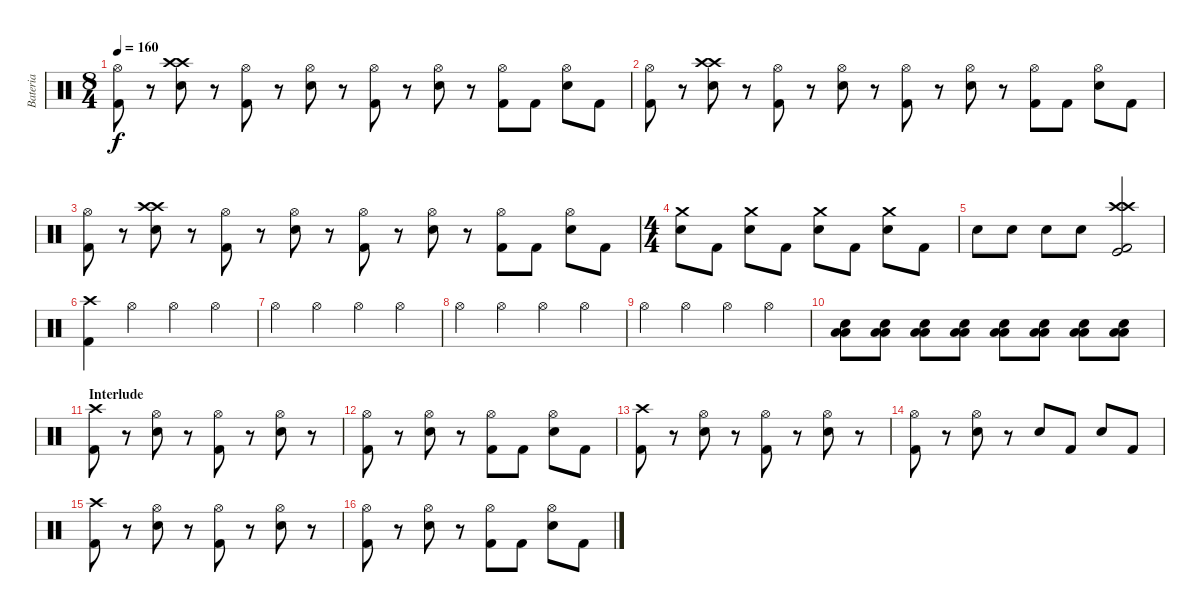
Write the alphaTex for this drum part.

\track ("Bateria" "Bateria") {instrument percussion}
\staff {score}
\articulation defaults
\ts (8 4)
\tempo 160
\clef neutral
\ks c
("Hi-Hat (open)" "Kick (hit) 2").8{dy f} r.8 ("Crash high (hit)" "Crash high (hit)" "Snare (hit) 2").8 r.8 ("Hi-Hat (open)" "Kick (hit) 2").8 r.8 ("Hi-Hat (open)" "Snare (hit) 2").8 r.8 ("Hi-Hat (open)" "Kick (hit) 2").8 r.8 ("Hi-Hat (open)" "Snare (hit) 2").8 r.8 ("Hi-Hat (open)" "Kick (hit) 2").8 "Kick (hit) 2".8 ("Hi-Hat (open)" "Snare (hit) 2").8 "Kick (hit) 2".8 |
("Hi-Hat (open)" "Kick (hit) 2").8 r.8 ("Crash high (hit)" "Crash high (hit)" "Snare (hit) 2").8 r.8 ("Hi-Hat (open)" "Kick (hit) 2").8 r.8 ("Hi-Hat (open)" "Snare (hit) 2").8 r.8 ("Hi-Hat (open)" "Kick (hit) 2").8 r.8 ("Hi-Hat (open)" "Snare (hit) 2").8 r.8 ("Hi-Hat (open)" "Kick (hit) 2").8 "Kick (hit) 2".8 ("Hi-Hat (open)" "Snare (hit) 2").8 "Kick (hit) 2".8 |
("Hi-Hat (open)" "Kick (hit) 2").8 r.8 ("Crash high (hit)" "Crash high (hit)" "Snare (hit) 2").8 r.8 ("Hi-Hat (open)" "Kick (hit) 2").8 r.8 ("Hi-Hat (open)" "Snare (hit) 2").8 r.8 ("Hi-Hat (open)" "Kick (hit) 2").8 r.8 ("Hi-Hat (open)" "Snare (hit) 2").8 r.8 ("Hi-Hat (open)" "Kick (hit) 2").8 "Kick (hit) 2".8 ("Hi-Hat (open)" "Snare (hit) 2").8 "Kick (hit) 2".8 |
\ts (4 4)
("Crash medium (hit)" "Snare (hit) 2").8 "Kick (hit) 2".8 ("Crash medium (hit)" "Snare (hit) 2").8 "Kick (hit) 2".8 ("Crash medium (hit)" "Snare (hit) 2").8 "Kick (hit) 2".8 ("Crash medium (hit)" "Snare (hit) 2").8 "Kick (hit) 2".8 |
"Snare (hit) 2".8 "Snare (hit) 2".8 "Snare (hit) 2".8 "Snare (hit) 2".8 ("Crash high (hit)" "Crash high (hit)" "Kick (hit)" "Kick (hit) 2").2 |
("Crash high (hit)" "Kick (hit) 2").4 "Hi-Hat (open)".4 "Hi-Hat (open)".4 "Hi-Hat (open)".4 |
"Hi-Hat (open)".4 "Hi-Hat (open)".4 "Hi-Hat (open)".4 "Hi-Hat (open)".4 |
"Hi-Hat (open)".4 "Hi-Hat (open)".4 "Hi-Hat (open)".4 "Hi-Hat (open)".4 |
"Hi-Hat (open)".4 "Hi-Hat (open)".4 "Hi-Hat (open)".4 "Hi-Hat (open)".4 |
("Low Floor Tom (hit)" "Low Floor Tom (hit)" "Snare (hit) 2").8 ("Low Floor Tom (hit)" "Low Floor Tom (hit)" "Snare (hit) 2").8 ("Low Floor Tom (hit)" "Low Floor Tom (hit)" "Snare (hit) 2").8 ("Low Floor Tom (hit)" "Low Floor Tom (hit)" "Snare (hit) 2").8 ("Low Floor Tom (hit)" "Low Floor Tom (hit)" "Snare (hit) 2").8 ("Low Floor Tom (hit)" "Low Floor Tom (hit)" "Snare (hit) 2").8 ("Low Floor Tom (hit)" "Low Floor Tom (hit)" "Snare (hit) 2").8 ("Low Floor Tom (hit)" "Low Floor Tom (hit)" "Snare (hit) 2").8 |
\section ("" "Interlude")
("Crash high (hit)" "Kick (hit) 2").8 r.8 ("Hi-Hat (open)" "Snare (hit) 2").8 r.8 ("Hi-Hat (open)" "Kick (hit) 2").8 r.8 ("Hi-Hat (open)" "Snare (hit) 2").8 r.8 |
("Hi-Hat (open)" "Kick (hit) 2").8 r.8 ("Hi-Hat (open)" "Snare (hit) 2").8 r.8 ("Hi-Hat (open)" "Kick (hit) 2").8 "Kick (hit) 2".8 ("Hi-Hat (open)" "Snare (hit) 2").8 "Kick (hit) 2".8 |
("Crash high (hit)" "Kick (hit) 2").8 r.8 ("Hi-Hat (open)" "Snare (hit) 2").8 r.8 ("Hi-Hat (open)" "Kick (hit) 2").8 r.8 ("Hi-Hat (open)" "Snare (hit) 2").8 r.8 |
("Hi-Hat (open)" "Kick (hit) 2").8 r.8 ("Hi-Hat (open)" "Snare (hit) 2").8 r.8 "Snare (hit) 2".8 "Kick (hit) 2".8 "Snare (hit) 2".8 "Kick (hit) 2".8 |
("Crash high (hit)" "Kick (hit) 2").8 r.8 ("Hi-Hat (open)" "Snare (hit) 2").8 r.8 ("Hi-Hat (open)" "Kick (hit) 2").8 r.8 ("Hi-Hat (open)" "Snare (hit) 2").8 r.8 |
("Hi-Hat (open)" "Kick (hit) 2").8 r.8 ("Hi-Hat (open)" "Snare (hit) 2").8 r.8 ("Hi-Hat (open)" "Kick (hit) 2").8 "Kick (hit) 2".8 ("Hi-Hat (open)" "Snare (hit) 2").8 "Kick (hit) 2".8
